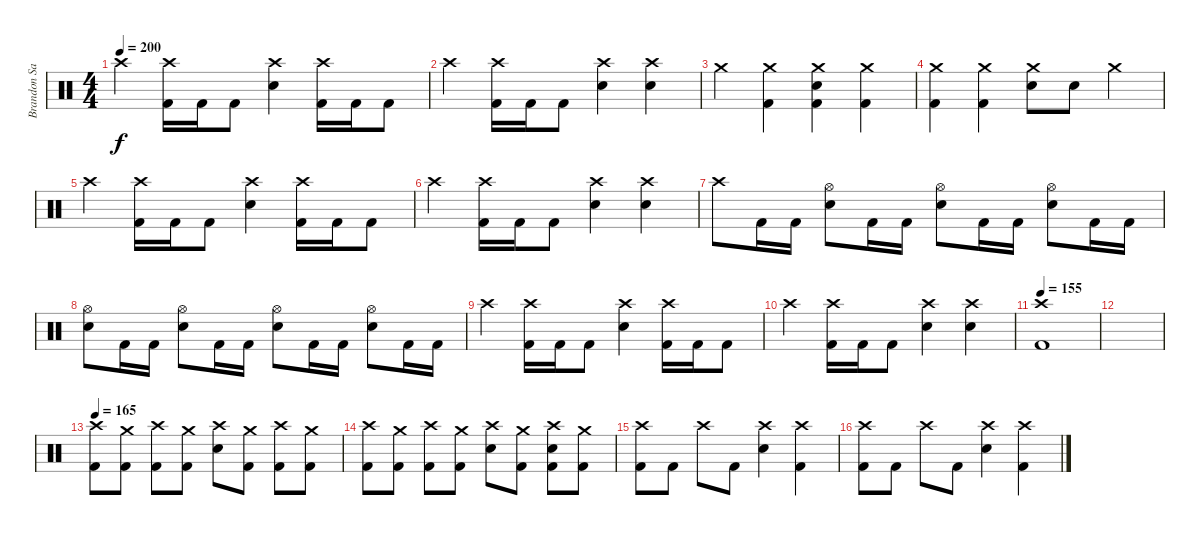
\track ("Brandon Saller" "Brandon Sa") {instrument percussion}
\staff {score}
\articulation defaults
\ts (4 4)
\tempo 200
\clef neutral
\ks c "Crash high (hit)".4{dy f}
("Crash high (hit)" "Kick (hit) 2").16 "Kick (hit) 2".16 "Kick (hit) 2".8 ("Crash high (hit)" "Electric Snare (hit)").4 ("Crash high (hit)" "Kick (hit) 2").16 "Kick (hit) 2".16 "Kick (hit) 2".8 |
"Crash high (hit)".4 ("Crash high (hit)" "Kick (hit) 2").16 "Kick (hit) 2".16 "Kick (hit) 2".8 ("Crash high (hit)" "Electric Snare (hit)").4 ("Crash high (hit)" "Electric Snare (hit)").4 |
"Crash medium (hit)".4 ("Crash medium (hit)" "Kick (hit) 2").4 ("Crash medium (hit)" "Electric Snare (hit)" "Kick (hit) 2").4 ("Crash medium (hit)" "Kick (hit) 2").4 |
("Crash medium (hit)" "Kick (hit) 2").4 ("Crash medium (hit)" "Kick (hit) 2").4 ("Crash medium (hit)" "Electric Snare (hit)").8 "Electric Snare (hit)".8 "Crash medium (hit)".4 |
"Crash high (hit)".4 ("Crash high (hit)" "Kick (hit) 2").16 "Kick (hit) 2".16 "Kick (hit) 2".8 ("Crash high (hit)" "Electric Snare (hit)").4 ("Crash high (hit)" "Kick (hit) 2").16 "Kick (hit) 2".16 "Kick (hit) 2".8 |
"Crash high (hit)".4 ("Crash high (hit)" "Kick (hit) 2").16 "Kick (hit) 2".16 "Kick (hit) 2".8 ("Crash high (hit)" "Electric Snare (hit)").4 ("Crash high (hit)" "Electric Snare (hit)").4 |
"Crash high (hit)".8 "Kick (hit) 2".16 "Kick (hit) 2".16 ("Hi-Hat (open)" "Electric Snare (hit)").8 "Kick (hit) 2".16 "Kick (hit) 2".16 ("Hi-Hat (open)" "Electric Snare (hit)").8 "Kick (hit) 2".16 "Kick (hit) 2".16 ("Hi-Hat (open)" "Electric Snare (hit)").8 "Kick (hit) 2".16 "Kick (hit) 2".16 |
("Hi-Hat (open)" "Electric Snare (hit)").8 "Kick (hit) 2".16 "Kick (hit) 2".16 ("Hi-Hat (open)" "Electric Snare (hit)").8 "Kick (hit) 2".16 "Kick (hit) 2".16 ("Hi-Hat (open)" "Electric Snare (hit)").8 "Kick (hit) 2".16 "Kick (hit) 2".16 ("Hi-Hat (open)" "Electric Snare (hit)").8 "Kick (hit) 2".16 "Kick (hit) 2".16 |
"Crash high (hit)".4 ("Crash high (hit)" "Kick (hit) 2").16 "Kick (hit) 2".16 "Kick (hit) 2".8 ("Crash high (hit)" "Electric Snare (hit)").4 ("Crash high (hit)" "Kick (hit) 2").16 "Kick (hit) 2".16 "Kick (hit) 2".8 |
"Crash high (hit)".4 ("Crash high (hit)" "Kick (hit) 2").16 "Kick (hit) 2".16 "Kick (hit) 2".8 ("Crash high (hit)" "Electric Snare (hit)").4 ("Crash high (hit)" "Electric Snare (hit)").4 |
\tempo 155
("Crash high (hit)" "Kick (hit) 2").1 |
|
\tempo 165
("Crash high (hit)" "Kick (hit) 2").8 ("Crash medium (hit)" "Kick (hit) 2").8 ("Crash high (hit)" "Kick (hit) 2").8 ("Crash medium (hit)" "Kick (hit) 2").8 ("Crash high (hit)" "Electric Snare (hit)").8 ("Crash medium (hit)" "Kick (hit) 2").8 ("Crash high (hit)" "Kick (hit) 2").8 ("Crash medium (hit)" "Kick (hit) 2").8 |
("Crash high (hit)" "Kick (hit) 2").8 ("Crash medium (hit)" "Kick (hit) 2").8 ("Crash high (hit)" "Kick (hit) 2").8 ("Crash medium (hit)" "Kick (hit) 2").8 ("Crash high (hit)" "Electric Snare (hit)").8 ("Crash medium (hit)" "Kick (hit) 2").8 ("Crash high (hit)" "Electric Snare (hit)" "Kick (hit) 2").8 ("Crash medium (hit)" "Kick (hit) 2").8 |
("Crash high (hit)" "Kick (hit) 2").8 "Kick (hit) 2".8 "Crash high (hit)".8 "Kick (hit) 2".8 ("Crash high (hit)" "Electric Snare (hit)").4 ("Crash high (hit)" "Kick (hit) 2").4 |
("Crash high (hit)" "Kick (hit) 2").8 "Kick (hit) 2".8 "Crash high (hit)".8 "Kick (hit) 2".8 ("Crash high (hit)" "Electric Snare (hit)").4 ("Crash high (hit)" "Kick (hit) 2").4
